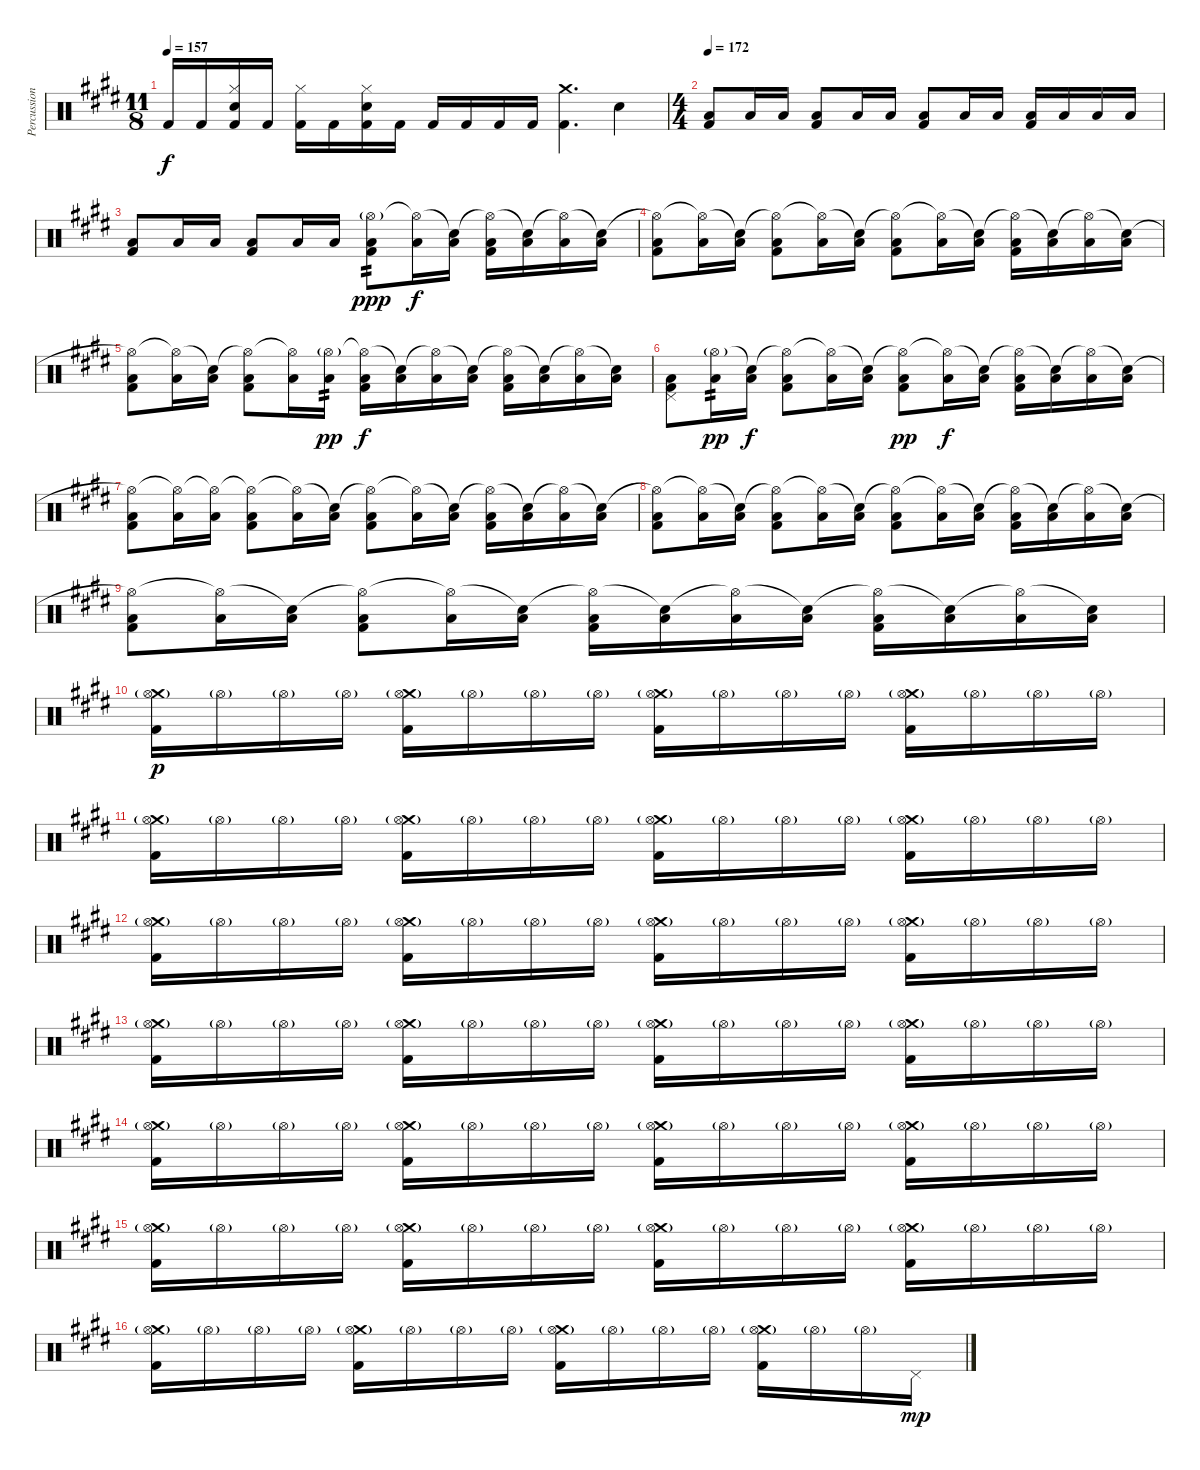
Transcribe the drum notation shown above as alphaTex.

\track ("Percussion (Thomen Stauch)" "Percussion") {instrument percussion}
\staff {score}
\articulation defaults
\ts (11 8)
\tempo 157
\clef neutral
\ks c#minor "Kick (hit) 2".16{dy f} "Kick (hit) 2".16{beam merge}
("Hi-Hat (closed)" "Snare (hit) 2" "Kick (hit) 2").16 "Kick (hit) 2".16 ("Hi-Hat (closed)" "Kick (hit) 2").16 "Kick (hit) 2".16{beam merge} ("Hi-Hat (closed)" "Snare (hit) 2" "Kick (hit) 2").16 "Kick (hit) 2".16 "Kick (hit) 2".16 "Kick (hit) 2".16{beam merge} "Kick (hit) 2".16 "Kick (hit) 2".16 ("Crash medium (hit)" "Kick (hit) 2").4{d} "Snare (hit) 2".4 |
\ts (4 4)
\tempo 172
("Low Tom (hit)" "Kick (hit) 2").8 "Low Tom (hit)".16 "Low Tom (hit)".16 ("Low Tom (hit)" "Kick (hit) 2").8 "Low Tom (hit)".16 "Low Tom (hit)".16 ("Low Tom (hit)" "Kick (hit) 2").8 "Low Tom (hit)".16 "Low Tom (hit)".16 ("Low Tom (hit)" "Kick (hit) 2").16 "Low Tom (hit)".16 "Low Tom (hit)".16 "Low Tom (hit)".16 |
("Low Tom (hit)" "Kick (hit) 2").8 "Low Tom (hit)".16 "Low Tom (hit)".16 ("Low Tom (hit)" "Kick (hit) 2").8 "Low Tom (hit)".16 "Low Tom (hit)".16 ("Hi-Hat (open)"{g} "Low Tom (hit)" "Kick (hit) 2").8{tp 2 dy ppp} ("Hi-Hat (open)"{t} "Low Tom (hit)").16{dy f} ("Snare (hit)"{t} "Low Tom (hit)").16 ("Hi-Hat (open)"{t} "Low Tom (hit)" "Kick (hit) 2").16 ("Snare (hit)"{t} "Low Tom (hit)").16 ("Hi-Hat (open)"{t} "Low Tom (hit)").16 ("Snare (hit)"{t} "Low Tom (hit)").16 |
("Hi-Hat (open)"{t} "Low Tom (hit)" "Kick (hit) 2").8 ("Hi-Hat (open)"{t} "Low Tom (hit)").16 ("Snare (hit)"{t} "Low Tom (hit)").16 ("Hi-Hat (open)"{t} "Low Tom (hit)" "Kick (hit) 2").8 ("Hi-Hat (open)"{t} "Low Tom (hit)").16 ("Snare (hit)"{t} "Low Tom (hit)").16 ("Hi-Hat (open)"{t} "Low Tom (hit)" "Kick (hit) 2").8 ("Hi-Hat (open)"{t} "Low Tom (hit)").16 ("Snare (hit)"{t} "Low Tom (hit)").16 ("Hi-Hat (open)"{t} "Low Tom (hit)" "Kick (hit) 2").16 ("Snare (hit)"{t} "Low Tom (hit)").16 ("Hi-Hat (open)"{t} "Low Tom (hit)").16 ("Snare (hit)"{t} "Low Tom (hit)").16 |
("Hi-Hat (open)"{t} "Low Tom (hit)" "Kick (hit) 2").8 ("Hi-Hat (open)"{t} "Low Tom (hit)").16 ("Snare (hit)"{t} "Low Tom (hit)").16 ("Hi-Hat (open)"{t} "Low Tom (hit)" "Kick (hit) 2").8 ("Hi-Hat (open)"{t} "Low Tom (hit)").16 ("Hi-Hat (open)"{g} "Low Tom (hit)").16{tp 2 dy pp} ("Hi-Hat (open)"{t} "Low Tom (hit)" "Kick (hit) 2").16{dy f} ("Snare (hit)"{t} "Low Tom (hit)").16 ("Hi-Hat (open)"{t} "Low Tom (hit)").16 ("Snare (hit)"{t} "Low Tom (hit)").16 ("Hi-Hat (open)"{t} "Low Tom (hit)" "Kick (hit) 2").16 ("Snare (hit)"{t} "Low Tom (hit)").16 ("Hi-Hat (open)"{t} "Low Tom (hit)").16 ("Snare (hit)"{t} "Low Tom (hit)").16 |
("Pedal Hi-Hat (hit)" "Low Tom (hit)" "Kick (hit) 2").8 ("Hi-Hat (open)"{g} "Low Tom (hit)").16{tp 2 dy pp} ("Snare (hit)"{t} "Low Tom (hit)").16{dy f} ("Hi-Hat (open)"{t} "Low Tom (hit)" "Kick (hit) 2").8 ("Hi-Hat (open)"{t} "Low Tom (hit)").16 ("Snare (hit)"{t} "Low Tom (hit)").16 ("Hi-Hat (open)"{t} "Low Tom (hit)" "Kick (hit) 2").8{dy pp} ("Hi-Hat (open)"{t} "Low Tom (hit)").16{dy f} ("Snare (hit)"{t} "Low Tom (hit)").16 ("Hi-Hat (open)"{t} "Low Tom (hit)" "Kick (hit) 2").16 ("Snare (hit)"{t} "Low Tom (hit)").16 ("Hi-Hat (open)"{t} "Low Tom (hit)").16 ("Snare (hit)"{t} "Low Tom (hit)").16 |
("Hi-Hat (open)"{t} "Low Tom (hit)" "Kick (hit) 2").8 ("Hi-Hat (open)"{t} "Low Tom (hit)").16 ("Hi-Hat (open)"{t} "Low Tom (hit)").16 ("Hi-Hat (open)"{t} "Low Tom (hit)" "Kick (hit) 2").8 ("Hi-Hat (open)"{t} "Low Tom (hit)").16 ("Snare (hit)"{t} "Low Tom (hit)").16 ("Hi-Hat (open)"{t} "Low Tom (hit)" "Kick (hit) 2").8 ("Hi-Hat (open)"{t} "Low Tom (hit)").16 ("Snare (hit)"{t} "Low Tom (hit)").16 ("Hi-Hat (open)"{t} "Low Tom (hit)" "Kick (hit) 2").16 ("Snare (hit)"{t} "Low Tom (hit)").16 ("Hi-Hat (open)"{t} "Low Tom (hit)").16 ("Snare (hit)"{t} "Low Tom (hit)").16 |
("Hi-Hat (open)"{t} "Low Tom (hit)" "Kick (hit) 2").8 ("Hi-Hat (open)"{t} "Low Tom (hit)").16 ("Snare (hit)"{t} "Low Tom (hit)").16 ("Hi-Hat (open)"{t} "Low Tom (hit)" "Kick (hit) 2").8 ("Hi-Hat (open)"{t} "Low Tom (hit)").16 ("Snare (hit)"{t} "Low Tom (hit)").16 ("Hi-Hat (open)"{t} "Low Tom (hit)" "Kick (hit) 2").8 ("Hi-Hat (open)"{t} "Low Tom (hit)").16 ("Snare (hit)"{t} "Low Tom (hit)").16 ("Hi-Hat (open)"{t} "Low Tom (hit)" "Kick (hit) 2").16 ("Snare (hit)"{t} "Low Tom (hit)").16 ("Hi-Hat (open)"{t} "Low Tom (hit)").16 ("Snare (hit)"{t} "Low Tom (hit)").16 |
("Hi-Hat (open)"{t} "Low Tom (hit)" "Kick (hit) 2").8 ("Hi-Hat (open)"{t} "Low Tom (hit)").16 ("Snare (hit)"{t} "Low Tom (hit)").16 ("Hi-Hat (open)"{t} "Low Tom (hit)" "Kick (hit) 2").8 ("Hi-Hat (open)"{t} "Low Tom (hit)").16 ("Snare (hit)"{t} "Low Tom (hit)").16 ("Hi-Hat (open)"{t} "Low Tom (hit)" "Kick (hit) 2").16 ("Snare (hit)"{t} "Low Tom (hit)").16 ("Hi-Hat (open)"{t} "Low Tom (hit)").16 ("Snare (hit)"{t} "Low Tom (hit)").16 ("Hi-Hat (open)"{t} "Low Tom (hit)" "Kick (hit) 2").16 ("Snare (hit)"{t} "Low Tom (hit)").16 ("Hi-Hat (open)"{t} "Low Tom (hit)").16 ("Snare (hit)"{t} "Low Tom (hit)").16 |
("Crash medium (hit)"{g} "Hi-Hat (open)"{g} "Kick (hit) 2").16{dy p} "Hi-Hat (open)"{g}.16 "Hi-Hat (open)"{g}.16 "Hi-Hat (open)"{g}.16 ("Crash medium (hit)"{g} "Hi-Hat (open)"{g} "Kick (hit) 2").16 "Hi-Hat (open)"{g}.16 "Hi-Hat (open)"{g}.16 "Hi-Hat (open)"{g}.16 ("Crash medium (hit)"{g} "Hi-Hat (open)"{g} "Kick (hit) 2").16 "Hi-Hat (open)"{g}.16 "Hi-Hat (open)"{g}.16 "Hi-Hat (open)"{g}.16 ("Crash medium (hit)"{g} "Hi-Hat (open)"{g} "Kick (hit) 2").16 "Hi-Hat (open)"{g}.16 "Hi-Hat (open)"{g}.16 "Hi-Hat (open)"{g}.16 |
("Crash medium (hit)"{g} "Hi-Hat (open)"{g} "Kick (hit) 2").16 "Hi-Hat (open)"{g}.16 "Hi-Hat (open)"{g}.16 "Hi-Hat (open)"{g}.16 ("Crash medium (hit)"{g} "Hi-Hat (open)"{g} "Kick (hit) 2").16 "Hi-Hat (open)"{g}.16 "Hi-Hat (open)"{g}.16 "Hi-Hat (open)"{g}.16 ("Crash medium (hit)"{g} "Hi-Hat (open)"{g} "Kick (hit) 2").16 "Hi-Hat (open)"{g}.16 "Hi-Hat (open)"{g}.16 "Hi-Hat (open)"{g}.16 ("Crash medium (hit)"{g} "Hi-Hat (open)"{g} "Kick (hit) 2").16 "Hi-Hat (open)"{g}.16 "Hi-Hat (open)"{g}.16 "Hi-Hat (open)"{g}.16 |
("Crash medium (hit)"{g} "Hi-Hat (open)"{g} "Kick (hit) 2").16 "Hi-Hat (open)"{g}.16 "Hi-Hat (open)"{g}.16 "Hi-Hat (open)"{g}.16 ("Crash medium (hit)"{g} "Hi-Hat (open)"{g} "Kick (hit) 2").16 "Hi-Hat (open)"{g}.16 "Hi-Hat (open)"{g}.16 "Hi-Hat (open)"{g}.16 ("Crash medium (hit)"{g} "Hi-Hat (open)"{g} "Kick (hit) 2").16 "Hi-Hat (open)"{g}.16 "Hi-Hat (open)"{g}.16 "Hi-Hat (open)"{g}.16 ("Crash medium (hit)"{g} "Hi-Hat (open)"{g} "Kick (hit) 2").16 "Hi-Hat (open)"{g}.16 "Hi-Hat (open)"{g}.16 "Hi-Hat (open)"{g}.16 |
("Crash medium (hit)"{g} "Hi-Hat (open)"{g} "Kick (hit) 2").16 "Hi-Hat (open)"{g}.16 "Hi-Hat (open)"{g}.16 "Hi-Hat (open)"{g}.16 ("Crash medium (hit)"{g} "Hi-Hat (open)"{g} "Kick (hit) 2").16 "Hi-Hat (open)"{g}.16 "Hi-Hat (open)"{g}.16 "Hi-Hat (open)"{g}.16 ("Crash medium (hit)"{g} "Hi-Hat (open)"{g} "Kick (hit) 2").16 "Hi-Hat (open)"{g}.16 "Hi-Hat (open)"{g}.16 "Hi-Hat (open)"{g}.16 ("Crash medium (hit)"{g} "Hi-Hat (open)"{g} "Kick (hit) 2").16 "Hi-Hat (open)"{g}.16 "Hi-Hat (open)"{g}.16 "Hi-Hat (open)"{g}.16 |
("Crash medium (hit)"{g} "Hi-Hat (open)"{g} "Kick (hit) 2").16 "Hi-Hat (open)"{g}.16 "Hi-Hat (open)"{g}.16 "Hi-Hat (open)"{g}.16 ("Crash medium (hit)"{g} "Hi-Hat (open)"{g} "Kick (hit) 2").16 "Hi-Hat (open)"{g}.16 "Hi-Hat (open)"{g}.16 "Hi-Hat (open)"{g}.16 ("Crash medium (hit)"{g} "Hi-Hat (open)"{g} "Kick (hit) 2").16 "Hi-Hat (open)"{g}.16 "Hi-Hat (open)"{g}.16 "Hi-Hat (open)"{g}.16 ("Crash medium (hit)"{g} "Hi-Hat (open)"{g} "Kick (hit) 2").16 "Hi-Hat (open)"{g}.16 "Hi-Hat (open)"{g}.16 "Hi-Hat (open)"{g}.16 |
("Crash medium (hit)"{g} "Hi-Hat (open)"{g} "Kick (hit) 2").16 "Hi-Hat (open)"{g}.16 "Hi-Hat (open)"{g}.16 "Hi-Hat (open)"{g}.16 ("Crash medium (hit)"{g} "Hi-Hat (open)"{g} "Kick (hit) 2").16 "Hi-Hat (open)"{g}.16 "Hi-Hat (open)"{g}.16 "Hi-Hat (open)"{g}.16 ("Crash medium (hit)"{g} "Hi-Hat (open)"{g} "Kick (hit) 2").16 "Hi-Hat (open)"{g}.16 "Hi-Hat (open)"{g}.16 "Hi-Hat (open)"{g}.16 ("Crash medium (hit)"{g} "Hi-Hat (open)"{g} "Kick (hit) 2").16 "Hi-Hat (open)"{g}.16 "Hi-Hat (open)"{g}.16 "Hi-Hat (open)"{g}.16 |
("Crash medium (hit)"{g} "Hi-Hat (open)"{g} "Kick (hit) 2").16 "Hi-Hat (open)"{g}.16 "Hi-Hat (open)"{g}.16 "Hi-Hat (open)"{g}.16 ("Crash medium (hit)"{g} "Hi-Hat (open)"{g} "Kick (hit) 2").16 "Hi-Hat (open)"{g}.16 "Hi-Hat (open)"{g}.16 "Hi-Hat (open)"{g}.16 ("Crash medium (hit)"{g} "Hi-Hat (open)"{g} "Kick (hit) 2").16 "Hi-Hat (open)"{g}.16 "Hi-Hat (open)"{g}.16 "Hi-Hat (open)"{g}.16 ("Crash medium (hit)"{g} "Hi-Hat (open)"{g} "Kick (hit) 2").16 "Hi-Hat (open)"{g}.16 "Hi-Hat (open)"{g}.16 "Pedal Hi-Hat (hit)".16{dy mp}
